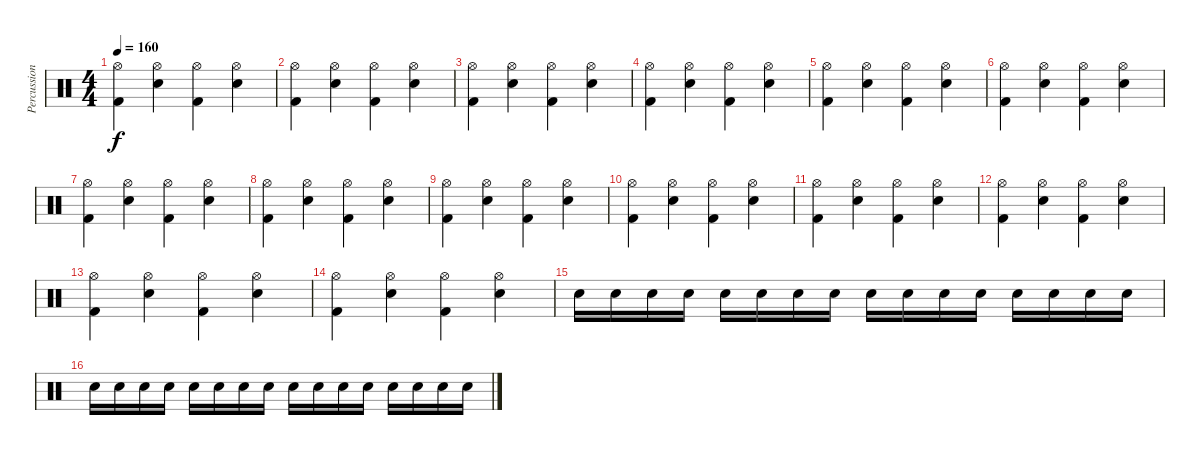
\track ("Percussion" "Percussion") {instrument percussion}
\staff {score}
\articulation defaults
\ts (4 4)
\tempo 160
\clef neutral
\ks c
("Hi-Hat (open)" "Kick (hit) 2").4{dy f} ("Hi-Hat (open)" "Snare (hit) 2").4 ("Hi-Hat (open)" "Kick (hit) 2").4 ("Hi-Hat (open)" "Snare (hit) 2").4 |
("Hi-Hat (open)" "Kick (hit) 2").4 ("Hi-Hat (open)" "Snare (hit) 2").4 ("Hi-Hat (open)" "Kick (hit) 2").4 ("Hi-Hat (open)" "Snare (hit) 2").4 |
("Hi-Hat (open)" "Kick (hit) 2").4 ("Hi-Hat (open)" "Snare (hit) 2").4 ("Hi-Hat (open)" "Kick (hit) 2").4 ("Hi-Hat (open)" "Snare (hit) 2").4 |
("Hi-Hat (open)" "Kick (hit) 2").4 ("Hi-Hat (open)" "Snare (hit) 2").4 ("Hi-Hat (open)" "Kick (hit) 2").4 ("Hi-Hat (open)" "Snare (hit) 2").4 |
("Hi-Hat (open)" "Kick (hit) 2").4 ("Hi-Hat (open)" "Snare (hit) 2").4 ("Hi-Hat (open)" "Kick (hit) 2").4 ("Hi-Hat (open)" "Snare (hit) 2").4 |
("Hi-Hat (open)" "Kick (hit) 2").4 ("Hi-Hat (open)" "Snare (hit) 2").4 ("Hi-Hat (open)" "Kick (hit) 2").4 ("Hi-Hat (open)" "Snare (hit) 2").4 |
("Hi-Hat (open)" "Kick (hit) 2").4 ("Hi-Hat (open)" "Snare (hit) 2").4 ("Hi-Hat (open)" "Kick (hit) 2").4 ("Hi-Hat (open)" "Snare (hit) 2").4 |
("Hi-Hat (open)" "Kick (hit) 2").4 ("Hi-Hat (open)" "Snare (hit) 2").4 ("Hi-Hat (open)" "Kick (hit) 2").4 ("Hi-Hat (open)" "Snare (hit) 2").4 |
("Hi-Hat (open)" "Kick (hit) 2").4 ("Hi-Hat (open)" "Snare (hit) 2").4 ("Hi-Hat (open)" "Kick (hit) 2").4 ("Hi-Hat (open)" "Snare (hit) 2").4 |
("Hi-Hat (open)" "Kick (hit) 2").4 ("Hi-Hat (open)" "Snare (hit) 2").4 ("Hi-Hat (open)" "Kick (hit) 2").4 ("Hi-Hat (open)" "Snare (hit) 2").4 |
("Hi-Hat (open)" "Kick (hit) 2").4 ("Hi-Hat (open)" "Snare (hit) 2").4 ("Hi-Hat (open)" "Kick (hit) 2").4 ("Hi-Hat (open)" "Snare (hit) 2").4 |
("Hi-Hat (open)" "Kick (hit) 2").4 ("Hi-Hat (open)" "Snare (hit) 2").4 ("Hi-Hat (open)" "Kick (hit) 2").4 ("Hi-Hat (open)" "Snare (hit) 2").4 |
("Hi-Hat (open)" "Kick (hit) 2").4 ("Hi-Hat (open)" "Snare (hit) 2").4 ("Hi-Hat (open)" "Kick (hit) 2").4 ("Hi-Hat (open)" "Snare (hit) 2").4 |
("Hi-Hat (open)" "Kick (hit) 2").4 ("Hi-Hat (open)" "Snare (hit) 2").4 ("Hi-Hat (open)" "Kick (hit) 2").4 ("Hi-Hat (open)" "Snare (hit) 2").4 |
"Electric Snare (hit)".16 "Electric Snare (hit)".16 "Electric Snare (hit)".16 "Electric Snare (hit)".16 "Electric Snare (hit)".16 "Electric Snare (hit)".16 "Electric Snare (hit)".16 "Electric Snare (hit)".16 "Electric Snare (hit)".16 "Electric Snare (hit)".16 "Electric Snare (hit)".16 "Electric Snare (hit)".16 "Electric Snare (hit)".16 "Electric Snare (hit)".16 "Electric Snare (hit)".16 "Electric Snare (hit)".16 |
"Electric Snare (hit)".16 "Electric Snare (hit)".16 "Electric Snare (hit)".16 "Electric Snare (hit)".16 "Electric Snare (hit)".16 "Electric Snare (hit)".16 "Electric Snare (hit)".16 "Electric Snare (hit)".16 "Electric Snare (hit)".16 "Electric Snare (hit)".16 "Electric Snare (hit)".16 "Electric Snare (hit)".16 "Electric Snare (hit)".16 "Electric Snare (hit)".16 "Electric Snare (hit)".16 "Electric Snare (hit)".16
